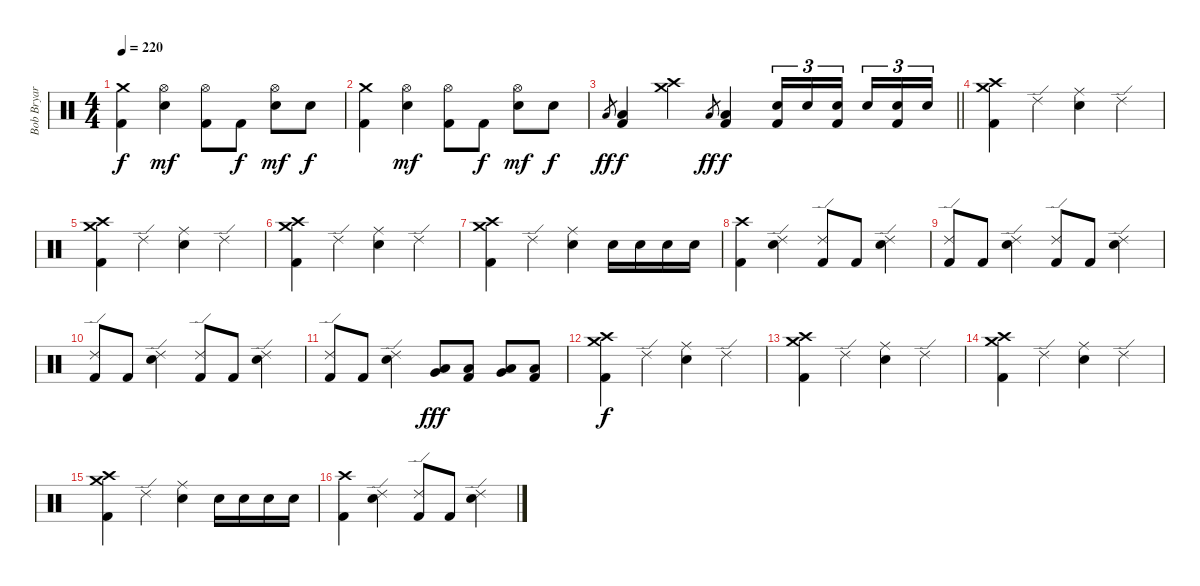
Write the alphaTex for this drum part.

\track ("Bob Bryar" "Bob Bryar") {instrument percussion}
\staff {score}
\articulation defaults
\ts (4 4)
\tempo 220
\clef neutral
\ks c
("Crash medium (hit)" "Kick (hit) 2").4{dy f} ("Hi-Hat (open)" "Electric Snare (hit)").4{dy mf} ("Hi-Hat (open)" "Kick (hit) 2").8 "Kick (hit) 2".8{dy f} ("Hi-Hat (open)" "Electric Snare (hit)").8{dy mf} "Electric Snare (hit)".8{dy f} |
("Crash medium (hit)" "Kick (hit) 2").4 ("Hi-Hat (open)" "Electric Snare (hit)").4{dy mf} ("Hi-Hat (open)" "Kick (hit) 2").8 "Kick (hit) 2".8{dy f} ("Hi-Hat (open)" "Electric Snare (hit)").8{dy mf} "Electric Snare (hit)".8{dy f} |
\barLineRight lightlight "Low Floor Tom (hit)".8{gr dy ff}
("Low Floor Tom (hit)" "Kick (hit) 2").4{dy f} ("Crash medium (hit)" "Crash high (hit)").4 "Low Floor Tom (hit)".8{gr dy ff} ("Low Floor Tom (hit)" "Kick (hit) 2").4{dy f} ("Snare (hit) 2" "Kick (hit) 2").16{tu (3 2)} "Snare (hit) 2".16{tu (3 2)} ("Snare (hit) 2" "Kick (hit) 2").16{tu (3 2) beam splitsecondary} "Snare (hit) 2".16{tu (3 2)} ("Snare (hit) 2" "Kick (hit) 2").16{tu (3 2)} "Snare (hit) 2".16{tu (3 2)} |
("Crash high (hit)" "Crash medium (hit)" "Kick (hit) 2").4 "Ride (edge) 2".4 ("Ride (middle)" "Electric Snare (hit)").4 "Ride (edge) 2".4 |
("Crash high (hit)" "Crash medium (hit)" "Kick (hit) 2").4 "Ride (edge) 2".4 ("Ride (middle)" "Electric Snare (hit)").4 "Ride (edge) 2".4 |
("Crash high (hit)" "Crash medium (hit)" "Kick (hit) 2").4 "Ride (edge) 2".4 ("Ride (middle)" "Electric Snare (hit)").4 "Ride (edge) 2".4 |
("Crash high (hit)" "Crash medium (hit)" "Kick (hit) 2").4 "Ride (edge) 2".4 ("Ride (middle)" "Electric Snare (hit)").4 "Electric Snare (hit)".16 "Electric Snare (hit)".16 "Electric Snare (hit)".16 "Electric Snare (hit)".16 |
("Crash high (hit)" "Kick (hit) 2").4 ("Ride (edge) 2" "Electric Snare (hit)").4 ("Ride (edge) 2" "Kick (hit) 2").8 "Kick (hit) 2".8 ("Ride (edge) 2" "Electric Snare (hit)").4 |
("Ride (edge) 2" "Kick (hit) 2").8 "Kick (hit) 2".8 ("Ride (edge) 2" "Electric Snare (hit)").4 ("Ride (edge) 2" "Kick (hit) 2").8 "Kick (hit) 2".8 ("Ride (edge) 2" "Electric Snare (hit)").4 |
("Ride (edge) 2" "Kick (hit) 2").8 "Kick (hit) 2".8 ("Ride (edge) 2" "Electric Snare (hit)").4 ("Ride (edge) 2" "Kick (hit) 2").8 "Kick (hit) 2".8 ("Ride (edge) 2" "Electric Snare (hit)").4 |
("Ride (edge) 2" "Kick (hit) 2").8 "Kick (hit) 2".8 ("Ride (edge) 2" "Electric Snare (hit)").4 ("Low Tom (hit)" "Very Low Tom (hit)").8{dy fff} ("Low Floor Tom (hit)" "Kick (hit) 2").8 ("Low Tom (hit)" "Very Low Tom (hit)").8 ("Low Floor Tom (hit)" "Kick (hit) 2").8 |
("Crash high (hit)" "Crash medium (hit)" "Kick (hit) 2").4{dy f} "Ride (edge) 2".4 ("Ride (middle)" "Electric Snare (hit)").4 "Ride (edge) 2".4 |
("Crash high (hit)" "Crash medium (hit)" "Kick (hit) 2").4 "Ride (edge) 2".4 ("Ride (middle)" "Electric Snare (hit)").4 "Ride (edge) 2".4 |
("Crash high (hit)" "Crash medium (hit)" "Kick (hit) 2").4 "Ride (edge) 2".4 ("Ride (middle)" "Electric Snare (hit)").4 "Ride (edge) 2".4 |
("Crash high (hit)" "Crash medium (hit)" "Kick (hit) 2").4 "Ride (edge) 2".4 ("Ride (middle)" "Electric Snare (hit)").4 "Electric Snare (hit)".16 "Electric Snare (hit)".16 "Electric Snare (hit)".16 "Electric Snare (hit)".16 |
("Crash high (hit)" "Kick (hit) 2").4 ("Ride (edge) 2" "Electric Snare (hit)").4 ("Ride (edge) 2" "Kick (hit) 2").8 "Kick (hit) 2".8 ("Ride (edge) 2" "Electric Snare (hit)").4
